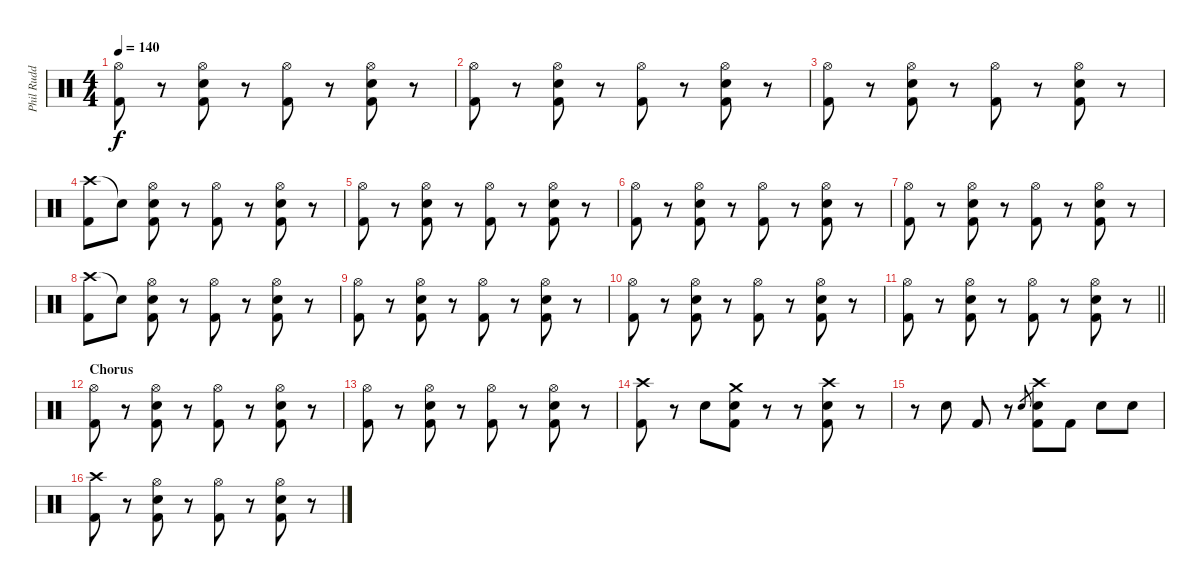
\track ("Phil Rudd" "Phil Rudd") {instrument percussion}
\staff {score}
\articulation defaults
\ts (4 4)
\tempo 140
\clef neutral
\ks c
("Hi-Hat (open)" "Kick (hit) 2").8{dy f} r.8 ("Hi-Hat (open)" "Electric Snare (hit)" "Kick (hit) 2").8 r.8 ("Hi-Hat (open)" "Kick (hit) 2").8 r.8 ("Hi-Hat (open)" "Electric Snare (hit)" "Kick (hit) 2").8 r.8 |
("Hi-Hat (open)" "Kick (hit) 2").8 r.8 ("Hi-Hat (open)" "Electric Snare (hit)" "Kick (hit) 2").8 r.8 ("Hi-Hat (open)" "Kick (hit) 2").8 r.8 ("Hi-Hat (open)" "Electric Snare (hit)" "Kick (hit) 2").8 r.8 |
("Hi-Hat (open)" "Kick (hit) 2").8 r.8 ("Hi-Hat (open)" "Electric Snare (hit)" "Kick (hit) 2").8 r.8 ("Hi-Hat (open)" "Kick (hit) 2").8 r.8 ("Hi-Hat (open)" "Electric Snare (hit)" "Kick (hit) 2").8 r.8 |
("Crash high (hit)" "Kick (hit) 2").8 "Snare (hit)"{t}.8 ("Hi-Hat (open)" "Electric Snare (hit)" "Kick (hit) 2").8 r.8 ("Hi-Hat (open)" "Kick (hit) 2").8 r.8 ("Hi-Hat (open)" "Electric Snare (hit)" "Kick (hit) 2").8 r.8 |
("Hi-Hat (open)" "Kick (hit) 2").8 r.8 ("Hi-Hat (open)" "Electric Snare (hit)" "Kick (hit) 2").8 r.8 ("Hi-Hat (open)" "Kick (hit) 2").8 r.8 ("Hi-Hat (open)" "Electric Snare (hit)" "Kick (hit) 2").8 r.8 |
("Hi-Hat (open)" "Kick (hit) 2").8 r.8 ("Hi-Hat (open)" "Electric Snare (hit)" "Kick (hit) 2").8 r.8 ("Hi-Hat (open)" "Kick (hit) 2").8 r.8 ("Hi-Hat (open)" "Electric Snare (hit)" "Kick (hit) 2").8 r.8 |
("Hi-Hat (open)" "Kick (hit) 2").8 r.8 ("Hi-Hat (open)" "Electric Snare (hit)" "Kick (hit) 2").8 r.8 ("Hi-Hat (open)" "Kick (hit) 2").8 r.8 ("Hi-Hat (open)" "Electric Snare (hit)" "Kick (hit) 2").8 r.8 |
("Crash high (hit)" "Kick (hit) 2").8 "Snare (hit)"{t}.8 ("Hi-Hat (open)" "Electric Snare (hit)" "Kick (hit) 2").8 r.8 ("Hi-Hat (open)" "Kick (hit) 2").8 r.8 ("Hi-Hat (open)" "Electric Snare (hit)" "Kick (hit) 2").8 r.8 |
("Hi-Hat (open)" "Kick (hit) 2").8 r.8 ("Hi-Hat (open)" "Electric Snare (hit)" "Kick (hit) 2").8 r.8 ("Hi-Hat (open)" "Kick (hit) 2").8 r.8 ("Hi-Hat (open)" "Electric Snare (hit)" "Kick (hit) 2").8 r.8 |
("Hi-Hat (open)" "Kick (hit) 2").8 r.8 ("Hi-Hat (open)" "Electric Snare (hit)" "Kick (hit) 2").8 r.8 ("Hi-Hat (open)" "Kick (hit) 2").8 r.8 ("Hi-Hat (open)" "Electric Snare (hit)" "Kick (hit) 2").8 r.8 |
\barLineRight lightlight
("Hi-Hat (open)" "Kick (hit) 2").8 r.8 ("Hi-Hat (open)" "Electric Snare (hit)" "Kick (hit) 2").8 r.8 ("Hi-Hat (open)" "Kick (hit) 2").8 r.8 ("Hi-Hat (open)" "Electric Snare (hit)" "Kick (hit) 2").8 r.8 |
\section ("" "Chorus")
("Hi-Hat (open)" "Kick (hit) 2").8 r.8 ("Hi-Hat (open)" "Electric Snare (hit)" "Kick (hit) 2").8 r.8 ("Hi-Hat (open)" "Kick (hit) 2").8 r.8 ("Hi-Hat (open)" "Electric Snare (hit)" "Kick (hit) 2").8 r.8 |
("Hi-Hat (open)" "Kick (hit) 2").8 r.8 ("Hi-Hat (open)" "Electric Snare (hit)" "Kick (hit) 2").8 r.8 ("Hi-Hat (open)" "Kick (hit) 2").8 r.8 ("Hi-Hat (open)" "Electric Snare (hit)" "Kick (hit) 2").8 r.8 |
("Crash high (hit)" "Kick (hit) 2").8 r.8 "Electric Snare (hit)".8 ("Crash medium (hit)" "Electric Snare (hit)" "Kick (hit) 2").8 r.8 r.8 ("Crash high (hit)" "Electric Snare (hit)" "Kick (hit) 2").8 r.8 |
r.8 "Electric Snare (hit)".8 "Kick (hit) 2".8 r.8 "Electric Snare (hit)".8{gr} ("Crash high (hit)" "Electric Snare (hit)" "Kick (hit) 2").8 "Kick (hit) 2".8 "Electric Snare (hit)".8 "Electric Snare (hit)".8 |
("Crash high (hit)" "Kick (hit) 2").8 r.8 ("Hi-Hat (open)" "Electric Snare (hit)" "Kick (hit) 2").8 r.8 ("Hi-Hat (open)" "Kick (hit) 2").8 r.8 ("Hi-Hat (open)" "Electric Snare (hit)" "Kick (hit) 2").8 r.8
